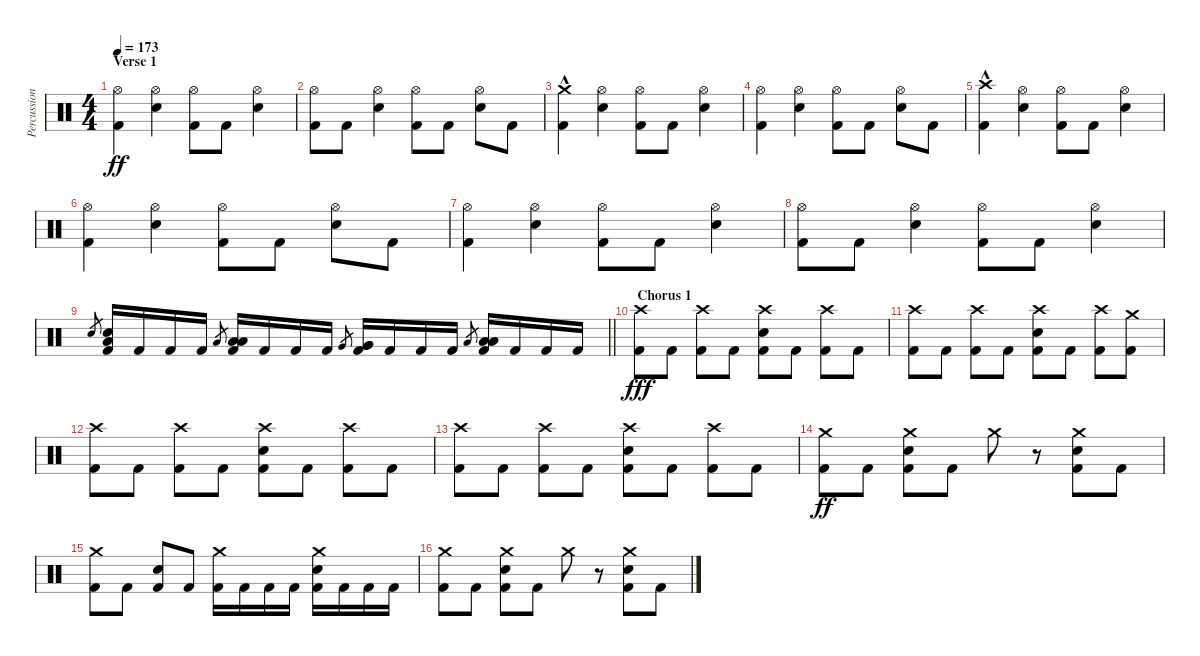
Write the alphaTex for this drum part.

\track ("Percussion" "Percussion") {instrument percussion}
\staff {score}
\articulation defaults
\ts (4 4)
\section ("" "Verse 1")
\tempo 173
\clef neutral
\ks c
("Hi-Hat (open)" "Kick (hit) 2").4{dy ff} ("Hi-Hat (open)" "Electric Snare (hit)").4 ("Hi-Hat (open)" "Kick (hit) 2").8 "Kick (hit) 2".8 ("Hi-Hat (open)" "Electric Snare (hit)").4 |
("Hi-Hat (open)" "Kick (hit) 2").8 "Kick (hit) 2".8 ("Hi-Hat (open)" "Electric Snare (hit)").4 ("Hi-Hat (open)" "Kick (hit) 2").8 "Kick (hit) 2".8 ("Hi-Hat (open)" "Electric Snare (hit)").8 "Kick (hit) 2".8 |
("Crash medium (hit)"{hac} "Kick (hit) 2").4 ("Hi-Hat (open)" "Electric Snare (hit)").4 ("Hi-Hat (open)" "Kick (hit) 2").8 "Kick (hit) 2".8 ("Hi-Hat (open)" "Electric Snare (hit)").4 |
("Hi-Hat (open)" "Kick (hit) 2").4 ("Hi-Hat (open)" "Electric Snare (hit)").4 ("Hi-Hat (open)" "Kick (hit) 2").8 "Kick (hit) 2".8 ("Hi-Hat (open)" "Electric Snare (hit)").8 "Kick (hit) 2".8 |
("Crash high (hit)"{hac} "Kick (hit) 2").4 ("Hi-Hat (open)" "Electric Snare (hit)").4 ("Hi-Hat (open)" "Kick (hit) 2").8 "Kick (hit) 2".8 ("Hi-Hat (open)" "Electric Snare (hit)").4 |
("Hi-Hat (open)" "Kick (hit) 2").4 ("Hi-Hat (open)" "Electric Snare (hit)").4 ("Hi-Hat (open)" "Kick (hit) 2").8 "Kick (hit) 2".8 ("Hi-Hat (open)" "Electric Snare (hit)").8 "Kick (hit) 2".8 |
("Hi-Hat (open)" "Kick (hit) 2").4 ("Hi-Hat (open)" "Electric Snare (hit)").4 ("Hi-Hat (open)" "Kick (hit) 2").8 "Kick (hit) 2".8 ("Hi-Hat (open)" "Electric Snare (hit)").4 |
("Hi-Hat (open)" "Kick (hit) 2").8 "Kick (hit) 2".8 ("Hi-Hat (open)" "Electric Snare (hit)").4 ("Hi-Hat (open)" "Kick (hit) 2").8 "Kick (hit) 2".8 ("Hi-Hat (open)" "Electric Snare (hit)").4 |
\barLineRight lightlight "Electric Snare (hit)".8{gr}
("Low Tom (hit)" "Electric Snare (hit)" "Kick (hit) 2").16 "Kick (hit) 2".16 "Kick (hit) 2".16 "Kick (hit) 2".16 "Low Tom (hit)".8{gr} ("Low Tom (hit)" "Low Tom (hit)" "Kick (hit) 2").16 "Kick (hit) 2".16 "Kick (hit) 2".16 "Kick (hit) 2".16 "Very Low Tom (hit)".8{gr} ("Very Low Tom (hit)" "Very Low Tom (hit)" "Kick (hit) 2").16 "Kick (hit) 2".16 "Kick (hit) 2".16 "Kick (hit) 2".16 "Low Floor Tom (hit)".8{gr} ("Low Floor Tom (hit)" "Low Floor Tom (hit)" "Kick (hit) 2").16 "Kick (hit) 2".16 "Kick (hit) 2".16 "Kick (hit) 2".16 |
\section ("" " Chorus 1")
("Crash high (hit)" "Kick (hit) 2").8{dy fff} "Kick (hit) 2".8 ("Crash high (hit)" "Kick (hit) 2").8 "Kick (hit) 2".8 ("Crash high (hit)" "Electric Snare (hit)" "Kick (hit) 2").8 "Kick (hit) 2".8 ("Crash high (hit)" "Kick (hit) 2").8 "Kick (hit) 2".8 |
("Crash high (hit)" "Kick (hit) 2").8 "Kick (hit) 2".8 ("Crash high (hit)" "Kick (hit) 2").8 "Kick (hit) 2".8 ("Crash high (hit)" "Electric Snare (hit)" "Kick (hit) 2").8 "Kick (hit) 2".8 ("Crash high (hit)" "Kick (hit) 2").8 ("Crash medium (hit)" "Kick (hit) 2").8 |
("Crash high (hit)" "Kick (hit) 2").8 "Kick (hit) 2".8 ("Crash high (hit)" "Kick (hit) 2").8 "Kick (hit) 2".8 ("Crash high (hit)" "Electric Snare (hit)" "Kick (hit) 2").8 "Kick (hit) 2".8 ("Crash high (hit)" "Kick (hit) 2").8 "Kick (hit) 2".8 |
("Crash high (hit)" "Kick (hit) 2").8 "Kick (hit) 2".8 ("Crash high (hit)" "Kick (hit) 2").8 "Kick (hit) 2".8 ("Crash high (hit)" "Electric Snare (hit)" "Kick (hit) 2").8 "Kick (hit) 2".8 ("Crash high (hit)" "Kick (hit) 2").8 "Kick (hit) 2".8 |
("Crash medium (hit)" "Kick (hit) 2").8{dy ff} "Kick (hit) 2".8 ("Crash medium (hit)" "Electric Snare (hit)" "Kick (hit) 2").8 "Kick (hit) 2".8 "Crash medium (hit)".8 r.8 ("Crash medium (hit)" "Electric Snare (hit)" "Kick (hit) 2").8 "Kick (hit) 2".8 |
("Crash medium (hit)" "Kick (hit) 2").8 "Kick (hit) 2".8 ("Electric Snare (hit)" "Kick (hit) 2").8 "Kick (hit) 2".8 ("Crash medium (hit)" "Kick (hit) 2").16 "Kick (hit) 2".16 "Kick (hit) 2".16 "Kick (hit) 2".16 ("Crash medium (hit)" "Electric Snare (hit)" "Kick (hit) 2").16 "Kick (hit) 2".16 "Kick (hit) 2".16 "Kick (hit) 2".16 |
("Crash medium (hit)" "Kick (hit) 2").8 "Kick (hit) 2".8 ("Crash medium (hit)" "Electric Snare (hit)" "Kick (hit) 2").8 "Kick (hit) 2".8 "Crash medium (hit)".8 r.8 ("Crash medium (hit)" "Electric Snare (hit)" "Kick (hit) 2").8 "Kick (hit) 2".8
